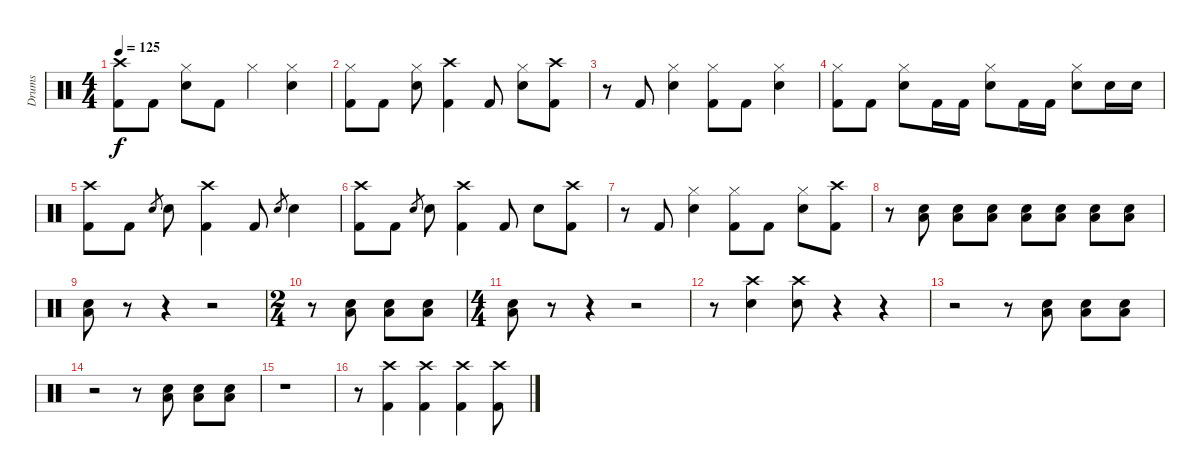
\track ("Drums" "Drums") {instrument percussion}
\staff {score}
\articulation defaults
\ts (4 4)
\tempo 125
\clef neutral
\ks c
("Crash high (hit)" "Kick (hit) 2").8{dy f} "Kick (hit) 2".8 ("Hi-Hat (closed)" "Electric Snare (hit)").8 "Kick (hit) 2".8 "Hi-Hat (closed)".4 ("Hi-Hat (closed)" "Electric Snare (hit)").4 |
("Hi-Hat (closed)" "Kick (hit) 2").8 "Kick (hit) 2".8 ("Hi-Hat (closed)" "Electric Snare (hit)").8 ("Crash high (hit)" "Kick (hit) 2").4 "Kick (hit) 2".8 ("Hi-Hat (closed)" "Electric Snare (hit)").8 ("Crash high (hit)" "Kick (hit) 2").8 |
r.8 "Kick (hit) 2".8 ("Hi-Hat (closed)" "Electric Snare (hit)").4 ("Hi-Hat (closed)" "Kick (hit) 2").8 "Kick (hit) 2".8 ("Hi-Hat (closed)" "Electric Snare (hit)").4 |
("Hi-Hat (closed)" "Kick (hit) 2").8 "Kick (hit) 2".8 ("Hi-Hat (closed)" "Electric Snare (hit)").8 "Kick (hit) 2".16 "Kick (hit) 2".16 ("Hi-Hat (closed)" "Electric Snare (hit)").8 "Kick (hit) 2".16 "Kick (hit) 2".16 ("Hi-Hat (closed)" "Electric Snare (hit)").8 "Electric Snare (hit)".16 "Electric Snare (hit)".16 |
("Crash high (hit)" "Kick (hit) 2").8 "Kick (hit) 2".8 "Electric Snare (hit)".8{gr} "Electric Snare (hit)".8 ("Crash high (hit)" "Kick (hit) 2").4 "Kick (hit) 2".8 "Electric Snare (hit)".8{gr} "Electric Snare (hit)".4 |
("Crash high (hit)" "Kick (hit) 2").8 "Kick (hit) 2".8 "Electric Snare (hit)".8{gr} "Electric Snare (hit)".8 ("Crash high (hit)" "Kick (hit) 2").4 "Kick (hit) 2".8 "Electric Snare (hit)".8 ("Crash high (hit)" "Kick (hit) 2").8 |
r.8 "Kick (hit) 2".8 ("Hi-Hat (closed)" "Electric Snare (hit)").4 ("Hi-Hat (closed)" "Kick (hit) 2").8 "Kick (hit) 2".8 ("Hi-Hat (closed)" "Electric Snare (hit)").8 ("Crash high (hit)" "Kick (hit) 2").8 |
r.8 ("Electric Snare (hit)" "Low Tom (hit)").8 ("Electric Snare (hit)" "Low Tom (hit)").8 ("Electric Snare (hit)" "Low Tom (hit)").8 ("Electric Snare (hit)" "Low Tom (hit)").8 ("Electric Snare (hit)" "Low Tom (hit)").8 ("Electric Snare (hit)" "Low Tom (hit)").8 ("Electric Snare (hit)" "Low Tom (hit)").8 |
("Electric Snare (hit)" "Low Tom (hit)").8 r.8 r.4 r.2 |
\ts (2 4)
r.8 ("Electric Snare (hit)" "Low Tom (hit)").8 ("Electric Snare (hit)" "Low Tom (hit)").8 ("Electric Snare (hit)" "Low Tom (hit)").8 |
\ts (4 4)
("Electric Snare (hit)" "Low Tom (hit)").8 r.8 r.4 r.2 |
r.8 ("Crash high (hit)" "Electric Snare (hit)").4 ("Crash high (hit)" "Electric Snare (hit)").8 r.4 r.4 |
r.2 r.8 ("Electric Snare (hit)" "Low Tom (hit)").8 ("Electric Snare (hit)" "Low Tom (hit)").8 ("Electric Snare (hit)" "Low Tom (hit)").8 |
r.2 r.8 ("Electric Snare (hit)" "Low Tom (hit)").8 ("Electric Snare (hit)" "Low Tom (hit)").8 ("Electric Snare (hit)" "Low Tom (hit)").8 |
r.1 |
r.8 ("Crash high (hit)" "Kick (hit) 2").4 ("Crash high (hit)" "Kick (hit) 2").4 ("Crash high (hit)" "Kick (hit) 2").4 ("Crash high (hit)" "Kick (hit) 2").8
